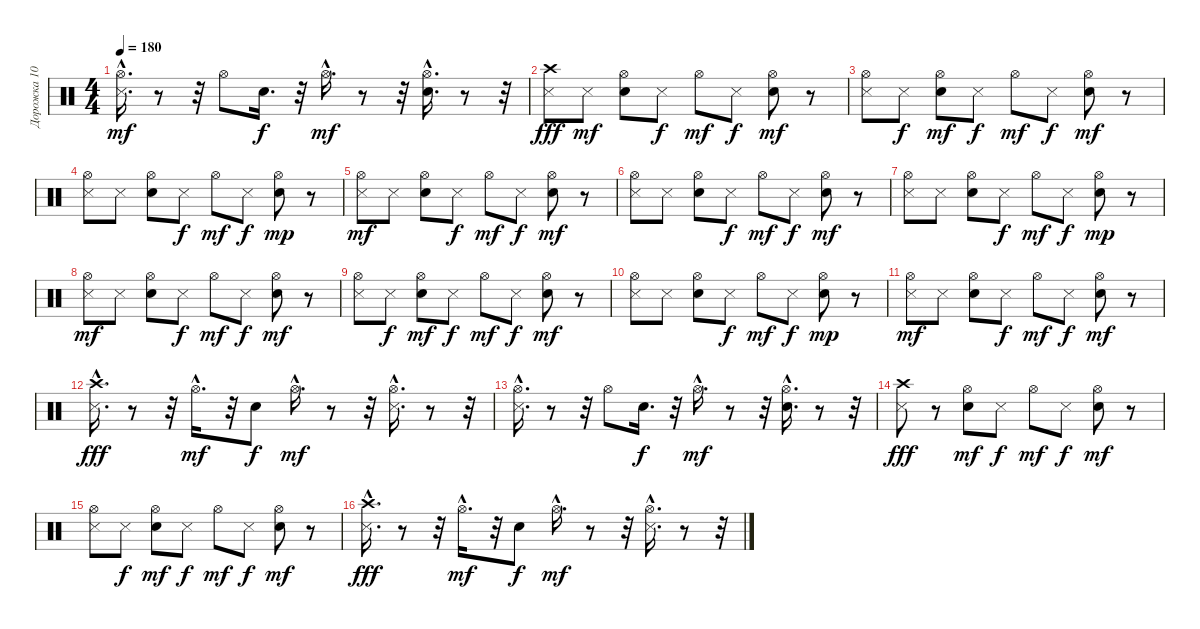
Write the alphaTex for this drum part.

\track ("Дорожка 10" "Дорожка 10") {instrument percussion}
\staff {score}
\articulation defaults
\ts (4 4)
\tempo 180
\clef neutral
\ks c
("Hi-Hat (open)"{hac} "Metronome (hit)"{hac}).16{d dy mf} r.8 r.32 "Hi-Hat (open)".8 "Snare (hit) 2".16{d dy f} r.32 "Hi-Hat (open)"{hac}.16{d dy mf} r.8 r.32 ("Snare (hit) 2"{hac} "Hi-Hat (open)"{hac}).16{d} r.8 r.32 |
("Crash high (hit)" "Metronome (hit)").8{dy fff} "Metronome (hit)".8{dy mf} ("Hi-Hat (open)" "Snare (hit) 2").8 "Metronome (hit)".8{dy f} "Hi-Hat (open)".8{dy mf} "Metronome (hit)".8{dy f} ("Hi-Hat (open)" "Snare (hit) 2").8{dy mf} r.8 |
("Hi-Hat (open)" "Metronome (hit)").8 "Metronome (hit)".8{dy f} ("Hi-Hat (open)" "Snare (hit) 2").8{dy mf} "Metronome (hit)".8{dy f} "Hi-Hat (open)".8{dy mf} "Metronome (hit)".8{dy f} ("Hi-Hat (open)" "Snare (hit) 2").8{dy mf} r.8 |
("Hi-Hat (open)" "Metronome (hit)").8 "Metronome (hit)".8 ("Hi-Hat (open)" "Snare (hit) 2").8 "Metronome (hit)".8{dy f} "Hi-Hat (open)".8{dy mf} "Metronome (hit)".8{dy f} ("Hi-Hat (open)" "Snare (hit) 2").8{dy mp} r.8 |
("Hi-Hat (open)" "Metronome (hit)").8{dy mf} "Metronome (hit)".8 ("Hi-Hat (open)" "Snare (hit) 2").8 "Metronome (hit)".8{dy f} "Hi-Hat (open)".8{dy mf} "Metronome (hit)".8{dy f} ("Hi-Hat (open)" "Snare (hit) 2").8{dy mf} r.8 |
("Hi-Hat (open)" "Metronome (hit)").8 "Metronome (hit)".8 ("Hi-Hat (open)" "Snare (hit) 2").8 "Metronome (hit)".8{dy f} "Hi-Hat (open)".8{dy mf} "Metronome (hit)".8{dy f} ("Hi-Hat (open)" "Snare (hit) 2").8{dy mf} r.8 |
("Hi-Hat (open)" "Metronome (hit)").8 "Metronome (hit)".8 ("Hi-Hat (open)" "Snare (hit) 2").8 "Metronome (hit)".8{dy f} "Hi-Hat (open)".8{dy mf} "Metronome (hit)".8{dy f} ("Hi-Hat (open)" "Snare (hit) 2").8{dy mp} r.8 |
("Hi-Hat (open)" "Metronome (hit)").8{dy mf} "Metronome (hit)".8 ("Hi-Hat (open)" "Snare (hit) 2").8 "Metronome (hit)".8{dy f} "Hi-Hat (open)".8{dy mf} "Metronome (hit)".8{dy f} ("Hi-Hat (open)" "Snare (hit) 2").8{dy mf} r.8 |
("Hi-Hat (open)" "Metronome (hit)").8 "Metronome (hit)".8{dy f} ("Hi-Hat (open)" "Snare (hit) 2").8{dy mf} "Metronome (hit)".8{dy f} "Hi-Hat (open)".8{dy mf} "Metronome (hit)".8{dy f} ("Hi-Hat (open)" "Snare (hit) 2").8{dy mf} r.8 |
("Hi-Hat (open)" "Metronome (hit)").8 "Metronome (hit)".8 ("Hi-Hat (open)" "Snare (hit) 2").8 "Metronome (hit)".8{dy f} "Hi-Hat (open)".8{dy mf} "Metronome (hit)".8{dy f} ("Hi-Hat (open)" "Snare (hit) 2").8{dy mp} r.8 |
("Hi-Hat (open)" "Metronome (hit)").8{dy mf} "Metronome (hit)".8 ("Hi-Hat (open)" "Snare (hit) 2").8 "Metronome (hit)".8{dy f} "Hi-Hat (open)".8{dy mf} "Metronome (hit)".8{dy f} ("Hi-Hat (open)" "Snare (hit) 2").8{dy mf} r.8 |
("Metronome (hit)"{hac} "Crash high (hit)").16{d dy fff} r.8 r.32 "Hi-Hat (open)"{hac}.16{d dy mf} r.32 "Snare (hit) 2".8{dy f} "Hi-Hat (open)"{hac}.16{d dy mf} r.8 r.32 ("Hi-Hat (open)"{hac} "Metronome (hit)").16{d} r.8 r.32 |
("Hi-Hat (open)"{hac} "Metronome (hit)"{hac}).16{d} r.8 r.32 "Hi-Hat (open)".8 "Snare (hit) 2".16{d dy f} r.32 "Hi-Hat (open)"{hac}.16{d dy mf} r.8 r.32 ("Snare (hit) 2"{hac} "Hi-Hat (open)"{hac}).16{d} r.8 r.32 |
("Crash high (hit)" "Metronome (hit)").8{dy fff} r.8 ("Hi-Hat (open)" "Snare (hit) 2").8{dy mf} "Metronome (hit)".8{dy f} "Hi-Hat (open)".8{dy mf} "Metronome (hit)".8{dy f} ("Hi-Hat (open)" "Snare (hit) 2").8{dy mf} r.8 |
("Hi-Hat (open)" "Metronome (hit)").8 "Metronome (hit)".8{dy f} ("Hi-Hat (open)" "Snare (hit) 2").8{dy mf} "Metronome (hit)".8{dy f} "Hi-Hat (open)".8{dy mf} "Metronome (hit)".8{dy f} ("Hi-Hat (open)" "Snare (hit) 2").8{dy mf} r.8 |
("Metronome (hit)"{hac} "Crash high (hit)").16{d dy fff} r.8 r.32 "Hi-Hat (open)"{hac}.16{d dy mf} r.32 "Snare (hit) 2".8{dy f} "Hi-Hat (open)"{hac}.16{d dy mf} r.8 r.32 ("Hi-Hat (open)"{hac} "Metronome (hit)").16{d} r.8 r.32
